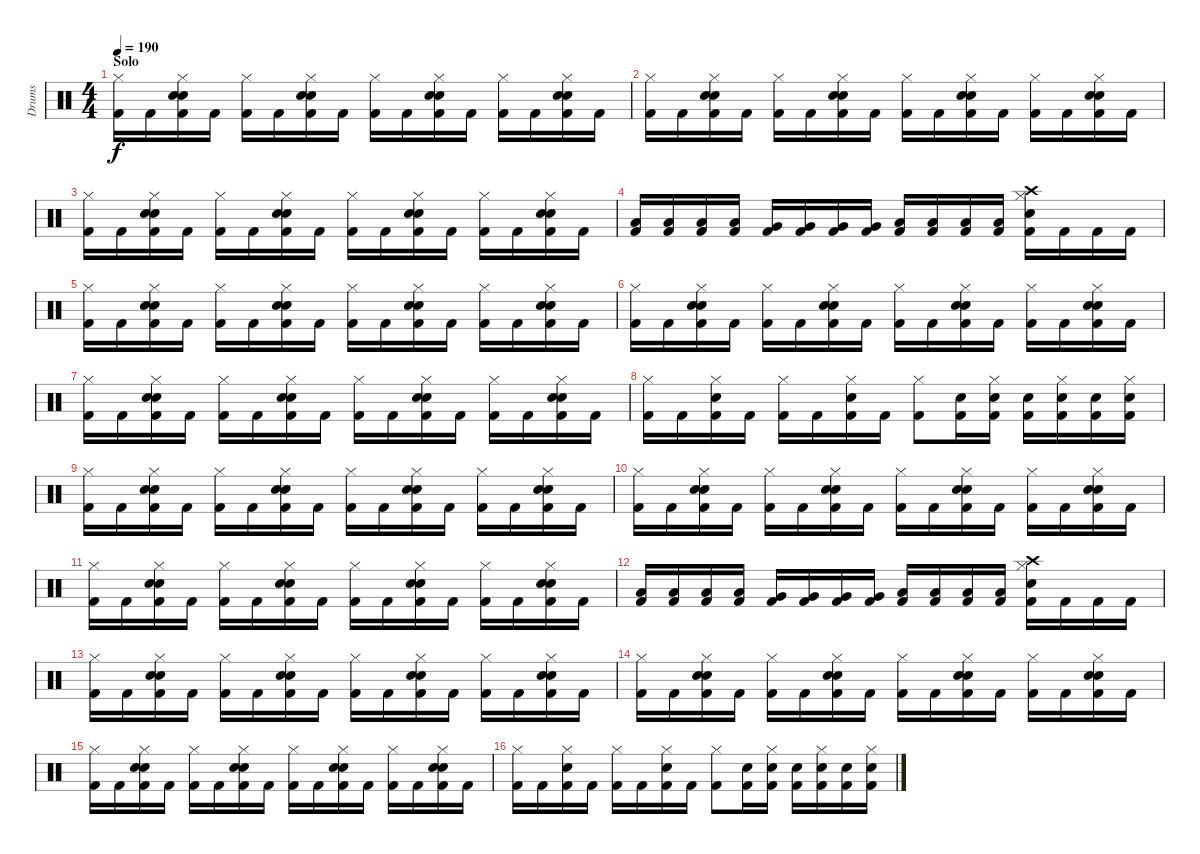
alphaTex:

\track ("Drums" "Drums") {instrument percussion}
\staff {score}
\articulation defaults
\ts (4 4)
\section ("" "Solo")
\tempo 190
\clef neutral
\ks c
("Hi-Hat (closed)" "Kick (hit) 2").16{dy f} "Kick (hit) 2".16 ("Snare (hit) 2" "Hi-Hat (closed)" "Snare (hit) 2" "Kick (hit) 2").16 "Kick (hit) 2".16 ("Hi-Hat (closed)" "Kick (hit) 2").16 "Kick (hit) 2".16 ("Snare (hit) 2" "Hi-Hat (closed)" "Snare (hit) 2" "Kick (hit) 2").16 "Kick (hit) 2".16 ("Hi-Hat (closed)" "Kick (hit) 2").16 "Kick (hit) 2".16 ("Snare (hit) 2" "Hi-Hat (closed)" "Snare (hit) 2" "Kick (hit) 2").16 "Kick (hit) 2".16 ("Hi-Hat (closed)" "Kick (hit) 2").16 "Kick (hit) 2".16 ("Snare (hit) 2" "Hi-Hat (closed)" "Snare (hit) 2" "Kick (hit) 2").16 "Kick (hit) 2".16 |
("Hi-Hat (closed)" "Kick (hit) 2").16 "Kick (hit) 2".16 ("Snare (hit) 2" "Hi-Hat (closed)" "Snare (hit) 2" "Kick (hit) 2").16 "Kick (hit) 2".16 ("Hi-Hat (closed)" "Kick (hit) 2").16 "Kick (hit) 2".16 ("Snare (hit) 2" "Hi-Hat (closed)" "Snare (hit) 2" "Kick (hit) 2").16 "Kick (hit) 2".16 ("Hi-Hat (closed)" "Kick (hit) 2").16 "Kick (hit) 2".16 ("Snare (hit) 2" "Hi-Hat (closed)" "Snare (hit) 2" "Kick (hit) 2").16 "Kick (hit) 2".16 ("Hi-Hat (closed)" "Kick (hit) 2").16 "Kick (hit) 2".16 ("Snare (hit) 2" "Hi-Hat (closed)" "Snare (hit) 2" "Kick (hit) 2").16 "Kick (hit) 2".16 |
("Hi-Hat (closed)" "Kick (hit) 2").16 "Kick (hit) 2".16 ("Snare (hit) 2" "Hi-Hat (closed)" "Snare (hit) 2" "Kick (hit) 2").16 "Kick (hit) 2".16 ("Hi-Hat (closed)" "Kick (hit) 2").16 "Kick (hit) 2".16 ("Snare (hit) 2" "Hi-Hat (closed)" "Snare (hit) 2" "Kick (hit) 2").16 "Kick (hit) 2".16 ("Hi-Hat (closed)" "Kick (hit) 2").16 "Kick (hit) 2".16 ("Snare (hit) 2" "Hi-Hat (closed)" "Snare (hit) 2" "Kick (hit) 2").16 "Kick (hit) 2".16 ("Hi-Hat (closed)" "Kick (hit) 2").16 "Kick (hit) 2".16 ("Snare (hit) 2" "Hi-Hat (closed)" "Snare (hit) 2" "Kick (hit) 2").16 "Kick (hit) 2".16 |
("Low Tom (hit)" "Kick (hit) 2").16 ("Low Tom (hit)" "Kick (hit) 2").16 ("Low Tom (hit)" "Kick (hit) 2").16 ("Low Tom (hit)" "Kick (hit) 2").16 ("Very Low Tom (hit)" "Kick (hit) 2").16 ("Very Low Tom (hit)" "Kick (hit) 2").16 ("Very Low Tom (hit)" "Kick (hit) 2").16 ("Very Low Tom (hit)" "Kick (hit) 2").16 ("Low Floor Tom (hit)" "Kick (hit) 2").16 ("Low Floor Tom (hit)" "Kick (hit) 2").16 ("Low Floor Tom (hit)" "Kick (hit) 2").16 ("Low Floor Tom (hit)" "Kick (hit) 2").16 ("Crash high (hit)" "Hi-Hat (closed)" "Snare (hit) 2" "Kick (hit) 2").16 "Kick (hit) 2".16 "Kick (hit) 2".16 "Kick (hit) 2".16 |
("Hi-Hat (closed)" "Kick (hit) 2").16 "Kick (hit) 2".16 ("Snare (hit) 2" "Hi-Hat (closed)" "Snare (hit) 2" "Kick (hit) 2").16 "Kick (hit) 2".16 ("Hi-Hat (closed)" "Kick (hit) 2").16 "Kick (hit) 2".16 ("Snare (hit) 2" "Hi-Hat (closed)" "Snare (hit) 2" "Kick (hit) 2").16 "Kick (hit) 2".16 ("Hi-Hat (closed)" "Kick (hit) 2").16 "Kick (hit) 2".16 ("Snare (hit) 2" "Hi-Hat (closed)" "Snare (hit) 2" "Kick (hit) 2").16 "Kick (hit) 2".16 ("Hi-Hat (closed)" "Kick (hit) 2").16 "Kick (hit) 2".16 ("Snare (hit) 2" "Hi-Hat (closed)" "Snare (hit) 2" "Kick (hit) 2").16 "Kick (hit) 2".16 |
("Hi-Hat (closed)" "Kick (hit) 2").16 "Kick (hit) 2".16 ("Snare (hit) 2" "Hi-Hat (closed)" "Snare (hit) 2" "Kick (hit) 2").16 "Kick (hit) 2".16 ("Hi-Hat (closed)" "Kick (hit) 2").16 "Kick (hit) 2".16 ("Snare (hit) 2" "Hi-Hat (closed)" "Snare (hit) 2" "Kick (hit) 2").16 "Kick (hit) 2".16 ("Hi-Hat (closed)" "Kick (hit) 2").16 "Kick (hit) 2".16 ("Snare (hit) 2" "Hi-Hat (closed)" "Snare (hit) 2" "Kick (hit) 2").16 "Kick (hit) 2".16 ("Hi-Hat (closed)" "Kick (hit) 2").16 "Kick (hit) 2".16 ("Snare (hit) 2" "Hi-Hat (closed)" "Snare (hit) 2" "Kick (hit) 2").16 "Kick (hit) 2".16 |
("Hi-Hat (closed)" "Kick (hit) 2").16 "Kick (hit) 2".16 ("Snare (hit) 2" "Hi-Hat (closed)" "Snare (hit) 2" "Kick (hit) 2").16 "Kick (hit) 2".16 ("Hi-Hat (closed)" "Kick (hit) 2").16 "Kick (hit) 2".16 ("Snare (hit) 2" "Hi-Hat (closed)" "Snare (hit) 2" "Kick (hit) 2").16 "Kick (hit) 2".16 ("Hi-Hat (closed)" "Kick (hit) 2").16 "Kick (hit) 2".16 ("Snare (hit) 2" "Hi-Hat (closed)" "Snare (hit) 2" "Kick (hit) 2").16 "Kick (hit) 2".16 ("Hi-Hat (closed)" "Kick (hit) 2").16 "Kick (hit) 2".16 ("Snare (hit) 2" "Hi-Hat (closed)" "Snare (hit) 2" "Kick (hit) 2").16 "Kick (hit) 2".16 |
("Hi-Hat (closed)" "Kick (hit) 2").16 "Kick (hit) 2".16 ("Snare (hit) 2" "Hi-Hat (closed)" "Kick (hit) 2").16 "Kick (hit) 2".16 ("Hi-Hat (closed)" "Kick (hit) 2").16 "Kick (hit) 2".16 ("Snare (hit) 2" "Hi-Hat (closed)" "Kick (hit) 2").16 "Kick (hit) 2".16 ("Hi-Hat (closed)" "Kick (hit) 2").8 ("Snare (hit) 2" "Kick (hit) 2").16 ("Hi-Hat (closed)" "Snare (hit) 2" "Kick (hit) 2").16 ("Snare (hit) 2" "Kick (hit) 2").16 ("Hi-Hat (closed)" "Snare (hit) 2" "Kick (hit) 2").16 ("Snare (hit) 2" "Kick (hit) 2").16 ("Hi-Hat (closed)" "Snare (hit) 2" "Kick (hit) 2").16 |
("Hi-Hat (closed)" "Kick (hit) 2").16 "Kick (hit) 2".16 ("Snare (hit) 2" "Hi-Hat (closed)" "Snare (hit) 2" "Kick (hit) 2").16 "Kick (hit) 2".16 ("Hi-Hat (closed)" "Kick (hit) 2").16 "Kick (hit) 2".16 ("Snare (hit) 2" "Hi-Hat (closed)" "Snare (hit) 2" "Kick (hit) 2").16 "Kick (hit) 2".16 ("Hi-Hat (closed)" "Kick (hit) 2").16 "Kick (hit) 2".16 ("Snare (hit) 2" "Hi-Hat (closed)" "Snare (hit) 2" "Kick (hit) 2").16 "Kick (hit) 2".16 ("Hi-Hat (closed)" "Kick (hit) 2").16 "Kick (hit) 2".16 ("Snare (hit) 2" "Hi-Hat (closed)" "Snare (hit) 2" "Kick (hit) 2").16 "Kick (hit) 2".16 |
("Hi-Hat (closed)" "Kick (hit) 2").16 "Kick (hit) 2".16 ("Snare (hit) 2" "Hi-Hat (closed)" "Snare (hit) 2" "Kick (hit) 2").16 "Kick (hit) 2".16 ("Hi-Hat (closed)" "Kick (hit) 2").16 "Kick (hit) 2".16 ("Snare (hit) 2" "Hi-Hat (closed)" "Snare (hit) 2" "Kick (hit) 2").16 "Kick (hit) 2".16 ("Hi-Hat (closed)" "Kick (hit) 2").16 "Kick (hit) 2".16 ("Snare (hit) 2" "Hi-Hat (closed)" "Snare (hit) 2" "Kick (hit) 2").16 "Kick (hit) 2".16 ("Hi-Hat (closed)" "Kick (hit) 2").16 "Kick (hit) 2".16 ("Snare (hit) 2" "Hi-Hat (closed)" "Snare (hit) 2" "Kick (hit) 2").16 "Kick (hit) 2".16 |
("Hi-Hat (closed)" "Kick (hit) 2").16 "Kick (hit) 2".16 ("Snare (hit) 2" "Hi-Hat (closed)" "Snare (hit) 2" "Kick (hit) 2").16 "Kick (hit) 2".16 ("Hi-Hat (closed)" "Kick (hit) 2").16 "Kick (hit) 2".16 ("Snare (hit) 2" "Hi-Hat (closed)" "Snare (hit) 2" "Kick (hit) 2").16 "Kick (hit) 2".16 ("Hi-Hat (closed)" "Kick (hit) 2").16 "Kick (hit) 2".16 ("Snare (hit) 2" "Hi-Hat (closed)" "Snare (hit) 2" "Kick (hit) 2").16 "Kick (hit) 2".16 ("Hi-Hat (closed)" "Kick (hit) 2").16 "Kick (hit) 2".16 ("Snare (hit) 2" "Hi-Hat (closed)" "Snare (hit) 2" "Kick (hit) 2").16 "Kick (hit) 2".16 |
("Low Tom (hit)" "Kick (hit) 2").16 ("Low Tom (hit)" "Kick (hit) 2").16 ("Low Tom (hit)" "Kick (hit) 2").16 ("Low Tom (hit)" "Kick (hit) 2").16 ("Very Low Tom (hit)" "Kick (hit) 2").16 ("Very Low Tom (hit)" "Kick (hit) 2").16 ("Very Low Tom (hit)" "Kick (hit) 2").16 ("Very Low Tom (hit)" "Kick (hit) 2").16 ("Low Floor Tom (hit)" "Kick (hit) 2").16 ("Low Floor Tom (hit)" "Kick (hit) 2").16 ("Low Floor Tom (hit)" "Kick (hit) 2").16 ("Low Floor Tom (hit)" "Kick (hit) 2").16 ("Crash high (hit)" "Hi-Hat (closed)" "Snare (hit) 2" "Kick (hit) 2").16 "Kick (hit) 2".16 "Kick (hit) 2".16 "Kick (hit) 2".16 |
("Hi-Hat (closed)" "Kick (hit) 2").16 "Kick (hit) 2".16 ("Snare (hit) 2" "Hi-Hat (closed)" "Snare (hit) 2" "Kick (hit) 2").16 "Kick (hit) 2".16 ("Hi-Hat (closed)" "Kick (hit) 2").16 "Kick (hit) 2".16 ("Snare (hit) 2" "Hi-Hat (closed)" "Snare (hit) 2" "Kick (hit) 2").16 "Kick (hit) 2".16 ("Hi-Hat (closed)" "Kick (hit) 2").16 "Kick (hit) 2".16 ("Snare (hit) 2" "Hi-Hat (closed)" "Snare (hit) 2" "Kick (hit) 2").16 "Kick (hit) 2".16 ("Hi-Hat (closed)" "Kick (hit) 2").16 "Kick (hit) 2".16 ("Snare (hit) 2" "Hi-Hat (closed)" "Snare (hit) 2" "Kick (hit) 2").16 "Kick (hit) 2".16 |
("Hi-Hat (closed)" "Kick (hit) 2").16 "Kick (hit) 2".16 ("Snare (hit) 2" "Hi-Hat (closed)" "Snare (hit) 2" "Kick (hit) 2").16 "Kick (hit) 2".16 ("Hi-Hat (closed)" "Kick (hit) 2").16 "Kick (hit) 2".16 ("Snare (hit) 2" "Hi-Hat (closed)" "Snare (hit) 2" "Kick (hit) 2").16 "Kick (hit) 2".16 ("Hi-Hat (closed)" "Kick (hit) 2").16 "Kick (hit) 2".16 ("Snare (hit) 2" "Hi-Hat (closed)" "Snare (hit) 2" "Kick (hit) 2").16 "Kick (hit) 2".16 ("Hi-Hat (closed)" "Kick (hit) 2").16 "Kick (hit) 2".16 ("Snare (hit) 2" "Hi-Hat (closed)" "Snare (hit) 2" "Kick (hit) 2").16 "Kick (hit) 2".16 |
("Hi-Hat (closed)" "Kick (hit) 2").16 "Kick (hit) 2".16 ("Snare (hit) 2" "Hi-Hat (closed)" "Snare (hit) 2" "Kick (hit) 2").16 "Kick (hit) 2".16 ("Hi-Hat (closed)" "Kick (hit) 2").16 "Kick (hit) 2".16 ("Snare (hit) 2" "Hi-Hat (closed)" "Snare (hit) 2" "Kick (hit) 2").16 "Kick (hit) 2".16 ("Hi-Hat (closed)" "Kick (hit) 2").16 "Kick (hit) 2".16 ("Snare (hit) 2" "Hi-Hat (closed)" "Snare (hit) 2" "Kick (hit) 2").16 "Kick (hit) 2".16 ("Hi-Hat (closed)" "Kick (hit) 2").16 "Kick (hit) 2".16 ("Snare (hit) 2" "Hi-Hat (closed)" "Snare (hit) 2" "Kick (hit) 2").16 "Kick (hit) 2".16 |
("Hi-Hat (closed)" "Kick (hit) 2").16 "Kick (hit) 2".16 ("Snare (hit) 2" "Hi-Hat (closed)" "Kick (hit) 2").16 "Kick (hit) 2".16 ("Hi-Hat (closed)" "Kick (hit) 2").16 "Kick (hit) 2".16 ("Snare (hit) 2" "Hi-Hat (closed)" "Kick (hit) 2").16 "Kick (hit) 2".16 ("Hi-Hat (closed)" "Kick (hit) 2").8 ("Snare (hit) 2" "Kick (hit) 2").16 ("Hi-Hat (closed)" "Snare (hit) 2" "Kick (hit) 2").16 ("Snare (hit) 2" "Kick (hit) 2").16 ("Hi-Hat (closed)" "Snare (hit) 2" "Kick (hit) 2").16 ("Snare (hit) 2" "Kick (hit) 2").16 ("Hi-Hat (closed)" "Snare (hit) 2" "Kick (hit) 2").16
